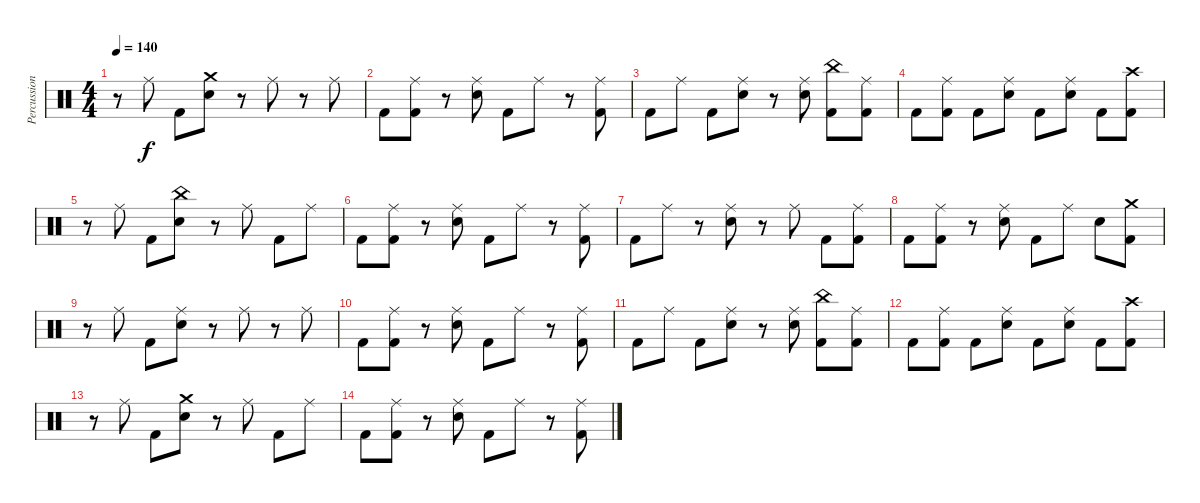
\track ("Percussion" "Percussion") {instrument percussion}
\staff {score}
\articulation defaults
\ts (4 4)
\tempo 140
\clef neutral
\ks c
r.8{dy f} "Ride (middle)".8 "Kick (hit) 2".8 ("Crash medium (hit)" "Snare (hit) 2").8 r.8 "Ride (middle)".8 r.8 "Ride (middle)".8 |
"Kick (hit) 2".8 ("Ride (middle)" "Kick (hit) 2").8 r.8 ("Ride (middle)" "Snare (hit) 2").8 "Kick (hit) 2".8 "Ride (middle)".8 r.8 ("Ride (middle)" "Kick (hit) 2").8 |
"Kick (hit) 2".8 "Ride (middle)".8 "Kick (hit) 2".8 ("Ride (middle)" "Snare (hit) 2").8 r.8 ("Ride (middle)" "Snare (hit) 2").8 ("China (hit)" "Kick (hit) 2").8 ("Ride (middle)" "Kick (hit) 2").8 |
"Kick (hit) 2".8 ("Ride (middle)" "Kick (hit) 2").8 "Kick (hit) 2".8 ("Ride (middle)" "Snare (hit) 2").8 "Kick (hit) 2".8 ("Ride (middle)" "Snare (hit) 2").8 "Kick (hit) 2".8 ("Crash high (hit)" "Kick (hit) 2").8 |
r.8 "Ride (middle)".8 "Kick (hit) 2".8 ("China (hit)" "Snare (hit) 2").8 r.8 "Ride (middle)".8 "Kick (hit) 2".8 "Ride (middle)".8 |
"Kick (hit) 2".8 ("Ride (middle)" "Kick (hit) 2").8 r.8 ("Ride (middle)" "Snare (hit) 2").8 "Kick (hit) 2".8 "Ride (middle)".8 r.8 ("Ride (middle)" "Kick (hit) 2").8 |
"Kick (hit) 2".8 "Ride (middle)".8 r.8 ("Ride (middle)" "Snare (hit) 2").8 r.8 "Ride (middle)".8 "Kick (hit) 2".8 ("Ride (middle)" "Kick (hit) 2").8 |
"Kick (hit) 2".8 ("Ride (middle)" "Kick (hit) 2").8 r.8 ("Ride (middle)" "Snare (hit) 2").8 "Kick (hit) 2".8 "Ride (middle)".8 "Snare (hit) 2".8 ("Crash medium (hit)" "Kick (hit) 2").8 |
r.8 "Ride (middle)".8 "Kick (hit) 2".8 ("Ride (middle)" "Snare (hit) 2").8 r.8 "Ride (middle)".8 r.8 "Ride (middle)".8 |
"Kick (hit) 2".8 ("Ride (middle)" "Kick (hit) 2").8 r.8 ("Ride (middle)" "Snare (hit) 2").8 "Kick (hit) 2".8 "Ride (middle)".8 r.8 ("Ride (middle)" "Kick (hit) 2").8 |
"Kick (hit) 2".8 "Ride (middle)".8 "Kick (hit) 2".8 ("Ride (middle)" "Snare (hit) 2").8 r.8 ("Ride (middle)" "Snare (hit) 2").8 ("China (hit)" "Kick (hit) 2").8 ("Ride (middle)" "Kick (hit) 2").8 |
"Kick (hit) 2".8 ("Ride (middle)" "Kick (hit) 2").8 "Kick (hit) 2".8 ("Ride (middle)" "Snare (hit) 2").8 "Kick (hit) 2".8 ("Ride (middle)" "Snare (hit) 2").8 "Kick (hit) 2".8 ("Crash high (hit)" "Kick (hit) 2").8 |
r.8 "Ride (middle)".8 "Kick (hit) 2".8 ("Crash medium (hit)" "Snare (hit) 2").8 r.8 "Ride (middle)".8 "Kick (hit) 2".8 "Ride (middle)".8 |
"Kick (hit) 2".8 ("Ride (middle)" "Kick (hit) 2").8 r.8 ("Ride (middle)" "Snare (hit) 2").8 "Kick (hit) 2".8 "Ride (middle)".8 r.8 ("Ride (middle)" "Kick (hit) 2").8
